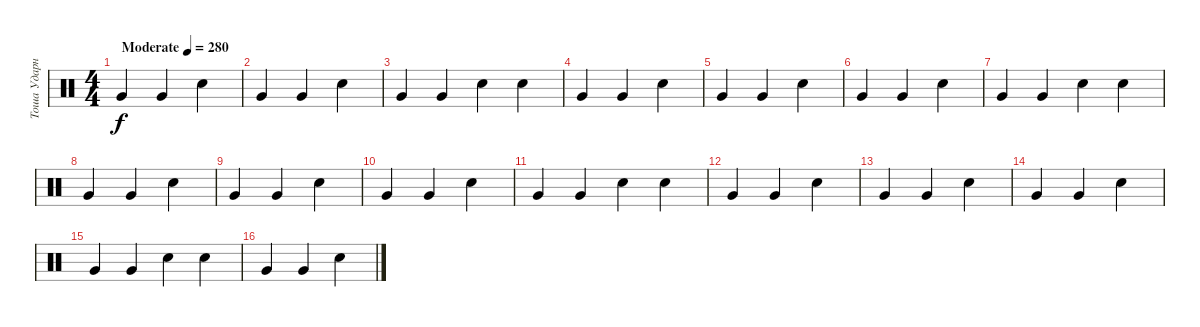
\track ("Тоша Ударные" "Тоша Ударн") {instrument percussion}
\staff {score}
\articulation defaults
\ts (4 4)
\tempo (280 "Moderate")
\clef neutral
\ks c "Very Low Tom (hit)".4{dy f} "Very Low Tom (hit)".4 "Electric Snare (hit)".4
|
"Very Low Tom (hit)".4 "Very Low Tom (hit)".4 "Electric Snare (hit)".4 |
"Very Low Tom (hit)".4 "Very Low Tom (hit)".4 "Electric Snare (hit)".4 "Electric Snare (hit)".4 |
"Very Low Tom (hit)".4 "Very Low Tom (hit)".4 "Electric Snare (hit)".4 |
"Very Low Tom (hit)".4 "Very Low Tom (hit)".4 "Electric Snare (hit)".4 |
"Very Low Tom (hit)".4 "Very Low Tom (hit)".4 "Electric Snare (hit)".4 |
"Very Low Tom (hit)".4 "Very Low Tom (hit)".4 "Electric Snare (hit)".4 "Electric Snare (hit)".4 |
"Very Low Tom (hit)".4 "Very Low Tom (hit)".4 "Electric Snare (hit)".4 |
"Very Low Tom (hit)".4 "Very Low Tom (hit)".4 "Electric Snare (hit)".4 |
"Very Low Tom (hit)".4 "Very Low Tom (hit)".4 "Electric Snare (hit)".4 |
"Very Low Tom (hit)".4 "Very Low Tom (hit)".4 "Electric Snare (hit)".4 "Electric Snare (hit)".4 |
"Very Low Tom (hit)".4 "Very Low Tom (hit)".4 "Electric Snare (hit)".4 |
"Very Low Tom (hit)".4 "Very Low Tom (hit)".4 "Electric Snare (hit)".4 |
"Very Low Tom (hit)".4 "Very Low Tom (hit)".4 "Electric Snare (hit)".4 |
"Very Low Tom (hit)".4 "Very Low Tom (hit)".4 "Electric Snare (hit)".4 "Electric Snare (hit)".4 |
"Very Low Tom (hit)".4 "Very Low Tom (hit)".4 "Electric Snare (hit)".4
